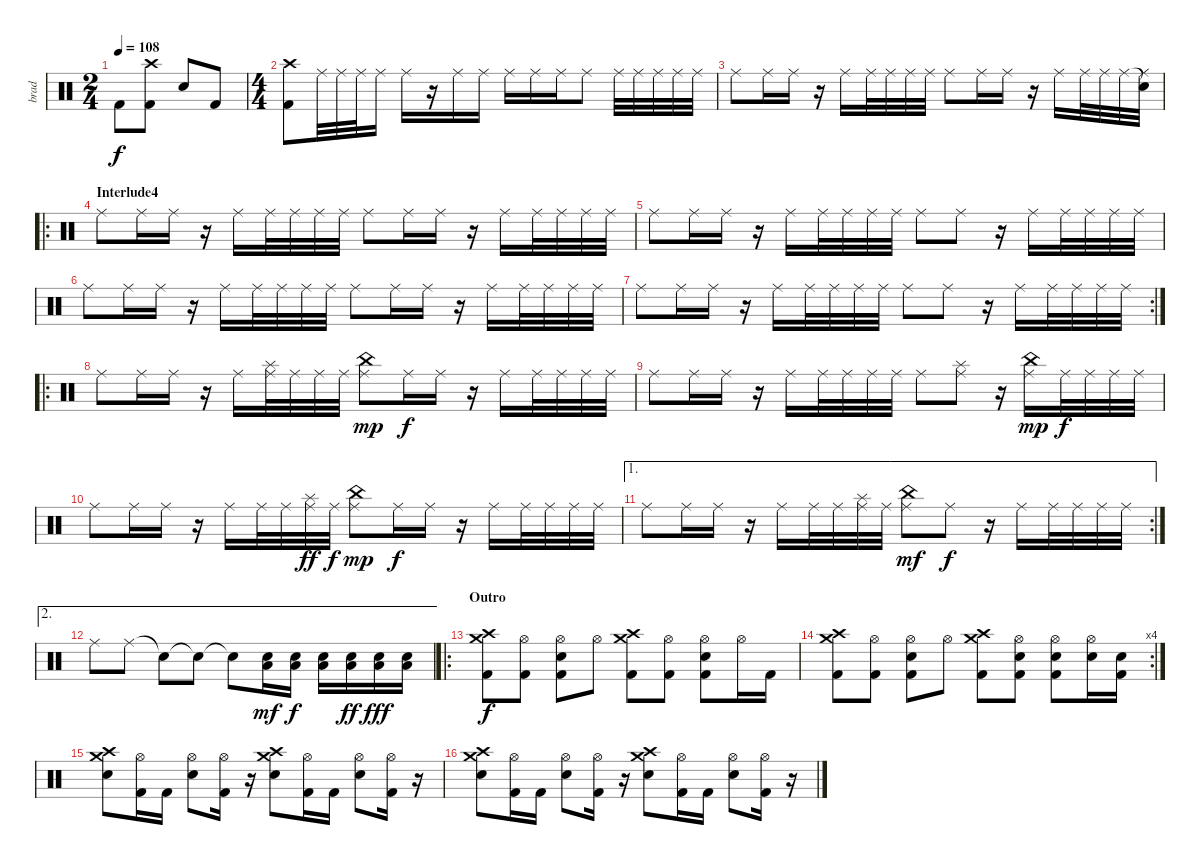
\track ("brad" "brad") {instrument percussion}
\staff {score}
\articulation defaults
\ts (2 4)
\tempo 108
\clef neutral
\ks c "Kick (hit) 2".8{dy f}
("Crash high (hit)" "Kick (hit) 2").8 "Electric Snare (hit)".8 "Kick (hit) 2".8 |
\ts (4 4)
("Crash high (hit)" "Kick (hit) 2").8 "Ride (middle)".32 "Ride (middle)".32 "Ride (middle)".32 "Ride (middle)".16 "Ride (middle)".16 r.16 "Ride (middle)".16 "Ride (middle)".16 "Ride (middle)".16 "Ride (middle)".16 "Ride (middle)".16 "Ride (middle)".8 "Ride (middle)".32 "Ride (middle)".32 "Ride (middle)".32 "Ride (middle)".32 "Ride (middle)".32 |
"Ride (middle)".8 "Ride (middle)".16 "Ride (middle)".16 r.16 "Ride (middle)".16 "Ride (middle)".32 "Ride (middle)".32 "Ride (middle)".32 "Ride (middle)".32 "Ride (middle)".8 "Ride (middle)".16 "Ride (middle)".16 r.16 "Ride (middle)".16 "Ride (middle)".32 "Ride (middle)".32 "Ride (middle)".32 ("Snare (hit)"{t} "Ride (middle)").32 |
\ro
\section ("" "Interlude4")
"Ride (middle)".8 "Ride (middle)".16 "Ride (middle)".16 r.16 "Ride (middle)".16 "Ride (middle)".32 "Ride (middle)".32 "Ride (middle)".32 "Ride (middle)".32 "Ride (middle)".8 "Ride (middle)".16 "Ride (middle)".16 r.16 "Ride (middle)".16 "Ride (middle)".32 "Ride (middle)".32 "Ride (middle)".32 "Ride (middle)".32 |
"Ride (middle)".8 "Ride (middle)".16 "Ride (middle)".16 r.16 "Ride (middle)".16 "Ride (middle)".32 "Ride (middle)".32 "Ride (middle)".32 "Ride (middle)".32 "Ride (middle)".8 "Ride (middle)".8 r.16 "Ride (middle)".16 "Ride (middle)".32 "Ride (middle)".32 "Ride (middle)".32 "Ride (middle)".32 |
"Ride (middle)".8 "Ride (middle)".16 "Ride (middle)".16 r.16 "Ride (middle)".16 "Ride (middle)".32 "Ride (middle)".32 "Ride (middle)".32 "Ride (middle)".32 "Ride (middle)".8 "Ride (middle)".16 "Ride (middle)".16 r.16 "Ride (middle)".16 "Ride (middle)".32 "Ride (middle)".32 "Ride (middle)".32 "Ride (middle)".32 |
\rc 2 "Ride (middle)".8 "Ride (middle)".16 "Ride (middle)".16
r.16 "Ride (middle)".16 "Ride (middle)".32 "Ride (middle)".32 "Ride (middle)".32 "Ride (middle)".32 "Ride (middle)".8 "Ride (middle)".8 r.16 "Ride (middle)".16 "Ride (middle)".32 "Ride (middle)".32 "Ride (middle)".32 "Ride (middle)".32 |
\ro "Ride (middle)".8 "Ride (middle)".16 "Ride (middle)".16
r.16 "Ride (middle)".16 ("Splash (hit)" "Ride (middle)").32 "Ride (middle)".32 "Ride (middle)".32 "Ride (middle)".32 ("China (hit)" "Ride (middle)").8{dy mp} "Ride (middle)".16{dy f} "Ride (middle)".16 r.16 "Ride (middle)".16 "Ride (middle)".32 "Ride (middle)".32 "Ride (middle)".32 "Ride (middle)".32 |
"Ride (middle)".8 "Ride (middle)".16 "Ride (middle)".16 r.16 "Ride (middle)".16 "Ride (middle)".32 "Ride (middle)".32 "Ride (middle)".32 "Ride (middle)".32 "Ride (middle)".8 ("Splash (hit)" "Ride (middle)").8 r.16 ("China (hit)" "Ride (middle)").16{dy mp} "Ride (middle)".32{dy f} "Ride (middle)".32 "Ride (middle)".32 "Ride (middle)".32 |
"Ride (middle)".8 "Ride (middle)".16 "Ride (middle)".16 r.16 "Ride (middle)".16 "Ride (middle)".32 "Ride (middle)".32 ("Splash (hit)" "Ride (middle)").32{dy ff} "Ride (middle)".32{dy f} ("China (hit)" "Ride (middle)").8{dy mp} "Ride (middle)".16{dy f} "Ride (middle)".16 r.16 "Ride (middle)".16 "Ride (middle)".32 "Ride (middle)".32 "Ride (middle)".32 "Ride (middle)".32 |
\ae 1
\rc 2 "Ride (middle)".8 "Ride (middle)".16 "Ride (middle)".16
r.16 "Ride (middle)".16 "Ride (middle)".32 "Ride (middle)".32 ("Splash (hit)" "Ride (middle)").32 "Ride (middle)".32 ("China (hit)" "Ride (middle)").8{dy mf} "Ride (middle)".8{dy f} r.16 "Ride (middle)".16 "Ride (middle)".32 "Ride (middle)".32 "Ride (middle)".32 "Ride (middle)".32 |
\ae 2 "Ride (middle)".8 "Ride (middle)".8 "Snare (hit)"{t}.8 "Snare (hit)"{t}.8 "Snare (hit)"{t}.8
("Electric Snare (hit)" "Low Floor Tom (hit)").16{dy mf} ("Electric Snare (hit)" "Low Floor Tom (hit)").16{dy f} ("Electric Snare (hit)" "Low Floor Tom (hit)").16 ("Electric Snare (hit)" "Low Floor Tom (hit)").16{dy ff} ("Electric Snare (hit)" "Low Floor Tom (hit)").16{dy fff} ("Electric Snare (hit)" "Low Floor Tom (hit)").16 |
\ro
\section ("" "Outro")
("Crash medium (hit)" "Crash high (hit)" "Kick (hit) 2").8{dy f} ("Hi-Hat (open)" "Kick (hit) 2").8 ("Hi-Hat (open)" "Electric Snare (hit)" "Kick (hit) 2").8 "Hi-Hat (open)".8 ("Crash high (hit)" "Crash medium (hit)" "Kick (hit) 2").8 ("Hi-Hat (open)" "Kick (hit) 2").8 ("Hi-Hat (open)" "Electric Snare (hit)" "Kick (hit) 2").8 "Hi-Hat (open)".16 "Kick (hit) 2".16 |
\rc 4
("Crash medium (hit)" "Crash high (hit)" "Kick (hit) 2").8 ("Hi-Hat (open)" "Kick (hit) 2").8 ("Hi-Hat (open)" "Electric Snare (hit)" "Kick (hit) 2").8 "Hi-Hat (open)".8 ("Crash high (hit)" "Crash medium (hit)" "Kick (hit) 2").8 ("Hi-Hat (open)" "Electric Snare (hit)" "Kick (hit) 2").8 ("Hi-Hat (open)" "Electric Snare (hit)" "Kick (hit) 2").8 ("Hi-Hat (open)" "Electric Snare (hit)").16 ("Electric Snare (hit)" "Kick (hit) 2").16 |
("Crash high (hit)" "Crash medium (hit)" "Electric Snare (hit)").8 ("Hi-Hat (open)" "Kick (hit) 2").16 "Kick (hit) 2".16 ("Hi-Hat (open)" "Electric Snare (hit)").8 ("Hi-Hat (open)" "Kick (hit) 2").16 r.16 ("Crash high (hit)" "Crash medium (hit)" "Electric Snare (hit)").8 ("Hi-Hat (open)" "Kick (hit) 2").16 "Kick (hit) 2".16 ("Hi-Hat (open)" "Electric Snare (hit)").8 ("Hi-Hat (open)" "Kick (hit) 2").16 r.16 |
("Crash high (hit)" "Crash medium (hit)" "Electric Snare (hit)").8 ("Hi-Hat (open)" "Kick (hit) 2").16 "Kick (hit) 2".16 ("Hi-Hat (open)" "Electric Snare (hit)").8 ("Hi-Hat (open)" "Kick (hit) 2").16 r.16 ("Crash high (hit)" "Crash medium (hit)" "Electric Snare (hit)").8 ("Hi-Hat (open)" "Kick (hit) 2").16 "Kick (hit) 2".16 ("Hi-Hat (open)" "Electric Snare (hit)").8 ("Hi-Hat (open)" "Kick (hit) 2").16 r.16
